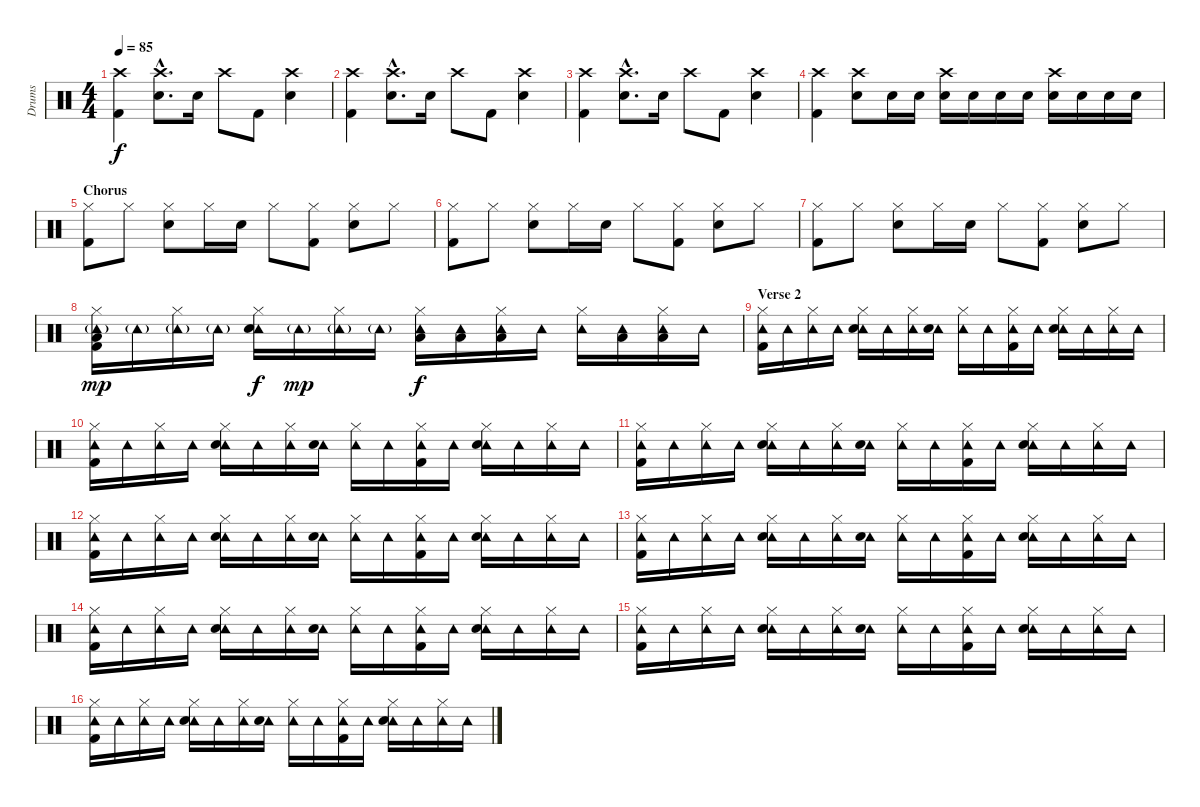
\track ("Drums" "Drums") {instrument percussion}
\staff {score}
\articulation defaults
\ts (4 4)
\tempo 85
\clef neutral
\ks c
("Crash high (hit)" "Kick (hit) 2").4{dy f} ("Crash high (hit)"{hac} "Snare (hit) 2"{hac}).8{d} "Snare (hit) 2".16 "Crash high (hit)".8 "Kick (hit) 2".8 ("Crash high (hit)" "Snare (hit) 2").4 |
("Crash high (hit)" "Kick (hit) 2").4 ("Crash high (hit)"{hac} "Snare (hit) 2"{hac}).8{d} "Snare (hit) 2".16 "Crash high (hit)".8 "Kick (hit) 2".8 ("Crash high (hit)" "Snare (hit) 2").4 |
("Crash high (hit)" "Kick (hit) 2").4 ("Crash high (hit)"{hac} "Snare (hit) 2"{hac}).8{d} "Snare (hit) 2".16 "Crash high (hit)".8 "Kick (hit) 2".8 ("Crash high (hit)" "Snare (hit) 2").4 |
("Crash high (hit)" "Kick (hit) 2").4 ("Crash high (hit)" "Snare (hit) 2").8 "Snare (hit) 2".16 "Snare (hit) 2".16 ("Crash high (hit)" "Snare (hit) 2").16 "Snare (hit) 2".16 "Snare (hit) 2".16 "Snare (hit) 2".16 ("Crash high (hit)" "Snare (hit) 2").16 "Snare (hit) 2".16 "Snare (hit) 2".16 "Snare (hit) 2".16 |
\section ("" "Chorus")
("Hi-Hat (closed)" "Kick (hit) 2").8 "Hi-Hat (closed)".8 ("Hi-Hat (closed)" "Snare (hit) 2").8 "Hi-Hat (closed)".16 "Snare (hit) 2".16 "Hi-Hat (closed)".8 ("Hi-Hat (closed)" "Kick (hit) 2").8 ("Hi-Hat (closed)" "Snare (hit) 2").8 "Hi-Hat (closed)".8 |
("Hi-Hat (closed)" "Kick (hit) 2").8 "Hi-Hat (closed)".8 ("Hi-Hat (closed)" "Snare (hit) 2").8 "Hi-Hat (closed)".16 "Snare (hit) 2".16 "Hi-Hat (closed)".8 ("Hi-Hat (closed)" "Kick (hit) 2").8 ("Hi-Hat (closed)" "Snare (hit) 2").8 "Hi-Hat (closed)".8 |
("Hi-Hat (closed)" "Kick (hit) 2").8 "Hi-Hat (closed)".8 ("Hi-Hat (closed)" "Snare (hit) 2").8 "Hi-Hat (closed)".16 "Snare (hit) 2".16 "Hi-Hat (closed)".8 ("Hi-Hat (closed)" "Kick (hit) 2").8 ("Hi-Hat (closed)" "Snare (hit) 2").8 "Hi-Hat (closed)".8 |
("Tambourine (hit)"{g} "Hi-Hat (closed)" "Low Tom (hit)" "Kick (hit) 2").16{dy mp} "Tambourine (hit)"{g}.16 ("Tambourine (hit)"{g} "Hi-Hat (closed)").16 "Tambourine (hit)"{g}.16 ("Tambourine (hit)" "Hi-Hat (closed)" "Snare (hit) 2").16{dy f} "Tambourine (hit)"{g}.16{dy mp} ("Tambourine (hit)"{g} "Hi-Hat (closed)").16 "Tambourine (hit)"{g}.16 ("Tambourine (hit)" "Hi-Hat (closed)" "Low Tom (hit)").16{dy f} ("Tambourine (hit)" "Low Tom (hit)").16 ("Tambourine (hit)" "Hi-Hat (closed)" "Low Tom (hit)").16 "Tambourine (hit)".16 ("Tambourine (hit)" "Hi-Hat (closed)").16 ("Tambourine (hit)" "Low Tom (hit)").16 ("Tambourine (hit)" "Hi-Hat (closed)" "Low Tom (hit)").16 "Tambourine (hit)".16 |
\section ("" "Verse 2")
("Tambourine (hit)" "Hi-Hat (closed)" "Kick (hit) 2").16 "Tambourine (hit)".16 ("Tambourine (hit)" "Hi-Hat (closed)").16 "Tambourine (hit)".16 ("Tambourine (hit)" "Hi-Hat (closed)" "Snare (hit) 2").16 "Tambourine (hit)".16 ("Tambourine (hit)" "Hi-Hat (closed)").16 ("Tambourine (hit)" "Snare (hit) 2").16 ("Tambourine (hit)" "Hi-Hat (closed)").16 "Tambourine (hit)".16 ("Tambourine (hit)" "Hi-Hat (closed)" "Kick (hit) 2").16 "Tambourine (hit)".16 ("Tambourine (hit)" "Hi-Hat (closed)" "Snare (hit) 2").16 "Tambourine (hit)".16 ("Tambourine (hit)" "Hi-Hat (closed)").16 "Tambourine (hit)".16 |
("Tambourine (hit)" "Hi-Hat (closed)" "Kick (hit) 2").16 "Tambourine (hit)".16 ("Tambourine (hit)" "Hi-Hat (closed)").16 "Tambourine (hit)".16 ("Tambourine (hit)" "Hi-Hat (closed)" "Snare (hit) 2").16 "Tambourine (hit)".16 ("Tambourine (hit)" "Hi-Hat (closed)").16 ("Tambourine (hit)" "Snare (hit) 2").16 ("Tambourine (hit)" "Hi-Hat (closed)").16 "Tambourine (hit)".16 ("Tambourine (hit)" "Hi-Hat (closed)" "Kick (hit) 2").16 "Tambourine (hit)".16 ("Tambourine (hit)" "Hi-Hat (closed)" "Snare (hit) 2").16 "Tambourine (hit)".16 ("Tambourine (hit)" "Hi-Hat (closed)").16 "Tambourine (hit)".16 |
("Tambourine (hit)" "Hi-Hat (closed)" "Kick (hit) 2").16 "Tambourine (hit)".16 ("Tambourine (hit)" "Hi-Hat (closed)").16 "Tambourine (hit)".16 ("Tambourine (hit)" "Hi-Hat (closed)" "Snare (hit) 2").16 "Tambourine (hit)".16 ("Tambourine (hit)" "Hi-Hat (closed)").16 ("Tambourine (hit)" "Snare (hit) 2").16 ("Tambourine (hit)" "Hi-Hat (closed)").16 "Tambourine (hit)".16 ("Tambourine (hit)" "Hi-Hat (closed)" "Kick (hit) 2").16 "Tambourine (hit)".16 ("Tambourine (hit)" "Hi-Hat (closed)" "Snare (hit) 2").16 "Tambourine (hit)".16 ("Tambourine (hit)" "Hi-Hat (closed)").16 "Tambourine (hit)".16 |
("Tambourine (hit)" "Hi-Hat (closed)" "Kick (hit) 2").16 "Tambourine (hit)".16 ("Tambourine (hit)" "Hi-Hat (closed)").16 "Tambourine (hit)".16 ("Tambourine (hit)" "Hi-Hat (closed)" "Snare (hit) 2").16 "Tambourine (hit)".16 ("Tambourine (hit)" "Hi-Hat (closed)").16 ("Tambourine (hit)" "Snare (hit) 2").16 ("Tambourine (hit)" "Hi-Hat (closed)").16 "Tambourine (hit)".16 ("Tambourine (hit)" "Hi-Hat (closed)" "Kick (hit) 2").16 "Tambourine (hit)".16 ("Tambourine (hit)" "Hi-Hat (closed)" "Snare (hit) 2").16 "Tambourine (hit)".16 ("Tambourine (hit)" "Hi-Hat (closed)").16 "Tambourine (hit)".16 |
("Tambourine (hit)" "Hi-Hat (closed)" "Kick (hit) 2").16 "Tambourine (hit)".16 ("Tambourine (hit)" "Hi-Hat (closed)").16 "Tambourine (hit)".16 ("Tambourine (hit)" "Hi-Hat (closed)" "Snare (hit) 2").16 "Tambourine (hit)".16 ("Tambourine (hit)" "Hi-Hat (closed)").16 ("Tambourine (hit)" "Snare (hit) 2").16 ("Tambourine (hit)" "Hi-Hat (closed)").16 "Tambourine (hit)".16 ("Tambourine (hit)" "Hi-Hat (closed)" "Kick (hit) 2").16 "Tambourine (hit)".16 ("Tambourine (hit)" "Hi-Hat (closed)" "Snare (hit) 2").16 "Tambourine (hit)".16 ("Tambourine (hit)" "Hi-Hat (closed)").16 "Tambourine (hit)".16 |
("Tambourine (hit)" "Hi-Hat (closed)" "Kick (hit) 2").16 "Tambourine (hit)".16 ("Tambourine (hit)" "Hi-Hat (closed)").16 "Tambourine (hit)".16 ("Tambourine (hit)" "Hi-Hat (closed)" "Snare (hit) 2").16 "Tambourine (hit)".16 ("Tambourine (hit)" "Hi-Hat (closed)").16 ("Tambourine (hit)" "Snare (hit) 2").16 ("Tambourine (hit)" "Hi-Hat (closed)").16 "Tambourine (hit)".16 ("Tambourine (hit)" "Hi-Hat (closed)" "Kick (hit) 2").16 "Tambourine (hit)".16 ("Tambourine (hit)" "Hi-Hat (closed)" "Snare (hit) 2").16 "Tambourine (hit)".16 ("Tambourine (hit)" "Hi-Hat (closed)").16 "Tambourine (hit)".16 |
("Tambourine (hit)" "Hi-Hat (closed)" "Kick (hit) 2").16 "Tambourine (hit)".16 ("Tambourine (hit)" "Hi-Hat (closed)").16 "Tambourine (hit)".16 ("Tambourine (hit)" "Hi-Hat (closed)" "Snare (hit) 2").16 "Tambourine (hit)".16 ("Tambourine (hit)" "Hi-Hat (closed)").16 ("Tambourine (hit)" "Snare (hit) 2").16 ("Tambourine (hit)" "Hi-Hat (closed)").16 "Tambourine (hit)".16 ("Tambourine (hit)" "Hi-Hat (closed)" "Kick (hit) 2").16 "Tambourine (hit)".16 ("Tambourine (hit)" "Hi-Hat (closed)" "Snare (hit) 2").16 "Tambourine (hit)".16 ("Tambourine (hit)" "Hi-Hat (closed)").16 "Tambourine (hit)".16 |
("Tambourine (hit)" "Hi-Hat (closed)" "Kick (hit) 2").16 "Tambourine (hit)".16 ("Tambourine (hit)" "Hi-Hat (closed)").16 "Tambourine (hit)".16 ("Tambourine (hit)" "Hi-Hat (closed)" "Snare (hit) 2").16 "Tambourine (hit)".16 ("Tambourine (hit)" "Hi-Hat (closed)").16 ("Tambourine (hit)" "Snare (hit) 2").16 ("Tambourine (hit)" "Hi-Hat (closed)").16 "Tambourine (hit)".16 ("Tambourine (hit)" "Hi-Hat (closed)" "Kick (hit) 2").16 "Tambourine (hit)".16 ("Tambourine (hit)" "Hi-Hat (closed)" "Snare (hit) 2").16 "Tambourine (hit)".16 ("Tambourine (hit)" "Hi-Hat (closed)").16 "Tambourine (hit)".16
